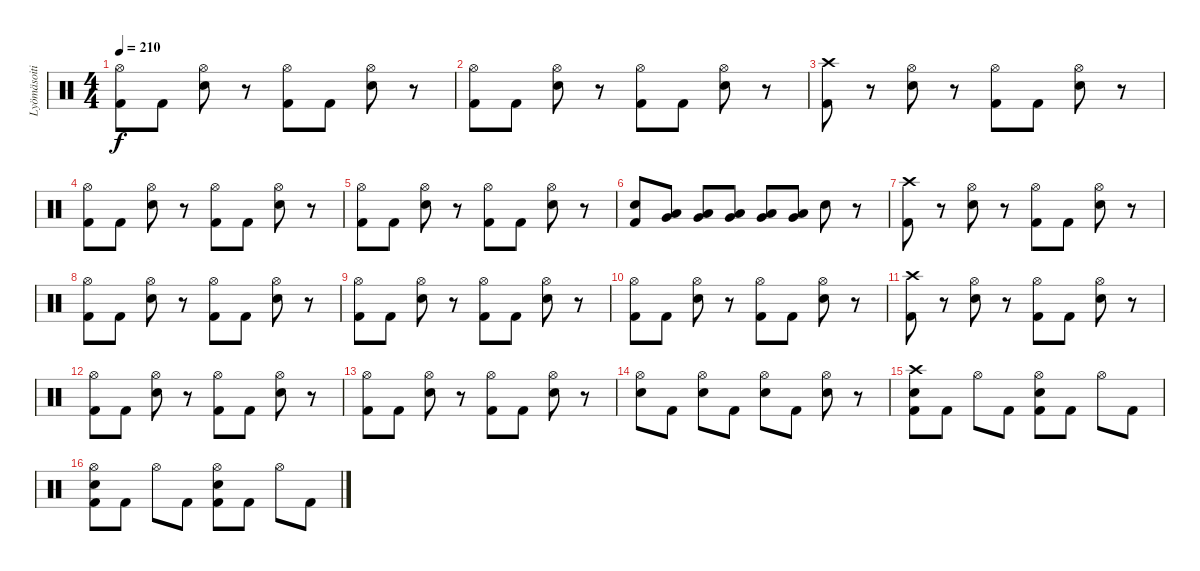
\track ("Lyömäsoitin" "Lyömäsoiti") {instrument percussion}
\staff {score}
\articulation defaults
\ts (4 4)
\tempo 210
\clef neutral
\ks c
("Hi-Hat (open)" "Kick (hit) 2").8{dy f} "Kick (hit) 2".8 ("Hi-Hat (open)" "Electric Snare (hit)").8 r.8 ("Hi-Hat (open)" "Kick (hit) 2").8 "Kick (hit) 2".8 ("Hi-Hat (open)" "Electric Snare (hit)").8 r.8 |
("Hi-Hat (open)" "Kick (hit) 2").8 "Kick (hit) 2".8 ("Hi-Hat (open)" "Electric Snare (hit)").8 r.8 ("Hi-Hat (open)" "Kick (hit) 2").8 "Kick (hit) 2".8 ("Hi-Hat (open)" "Electric Snare (hit)").8 r.8 |
("Crash high (hit)" "Kick (hit) 2").8 r.8 ("Hi-Hat (open)" "Electric Snare (hit)").8 r.8 ("Hi-Hat (open)" "Kick (hit) 2").8 "Kick (hit) 2".8 ("Hi-Hat (open)" "Electric Snare (hit)").8 r.8 |
("Hi-Hat (open)" "Kick (hit) 2").8 "Kick (hit) 2".8 ("Hi-Hat (open)" "Electric Snare (hit)").8 r.8 ("Hi-Hat (open)" "Kick (hit) 2").8 "Kick (hit) 2".8 ("Hi-Hat (open)" "Electric Snare (hit)").8 r.8 |
("Hi-Hat (open)" "Kick (hit) 2").8 "Kick (hit) 2".8 ("Hi-Hat (open)" "Electric Snare (hit)").8 r.8 ("Hi-Hat (open)" "Kick (hit) 2").8 "Kick (hit) 2".8 ("Hi-Hat (open)" "Electric Snare (hit)").8 r.8 |
("Electric Snare (hit)" "Kick (hit) 2").8 ("Low Tom (hit)" "Very Low Tom (hit)").8 ("Low Tom (hit)" "Very Low Tom (hit)").8 ("Low Tom (hit)" "Very Low Tom (hit)").8 ("Very Low Tom (hit)" "Low Floor Tom (hit)").8 ("Very Low Tom (hit)" "Low Floor Tom (hit)").8 "Electric Snare (hit)".8 r.8 |
("Crash high (hit)" "Kick (hit) 2").8 r.8 ("Hi-Hat (open)" "Electric Snare (hit)").8 r.8 ("Hi-Hat (open)" "Kick (hit) 2").8 "Kick (hit) 2".8 ("Hi-Hat (open)" "Electric Snare (hit)").8 r.8 |
("Hi-Hat (open)" "Kick (hit) 2").8 "Kick (hit) 2".8 ("Hi-Hat (open)" "Electric Snare (hit)").8 r.8 ("Hi-Hat (open)" "Kick (hit) 2").8 "Kick (hit) 2".8 ("Hi-Hat (open)" "Electric Snare (hit)").8 r.8 |
("Hi-Hat (open)" "Kick (hit) 2").8 "Kick (hit) 2".8 ("Hi-Hat (open)" "Electric Snare (hit)").8 r.8 ("Hi-Hat (open)" "Kick (hit) 2").8 "Kick (hit) 2".8 ("Hi-Hat (open)" "Electric Snare (hit)").8 r.8 |
("Hi-Hat (open)" "Kick (hit) 2").8 "Kick (hit) 2".8 ("Hi-Hat (open)" "Electric Snare (hit)").8 r.8 ("Hi-Hat (open)" "Kick (hit) 2").8 "Kick (hit) 2".8 ("Hi-Hat (open)" "Electric Snare (hit)").8 r.8 |
("Crash high (hit)" "Kick (hit) 2").8 r.8 ("Hi-Hat (open)" "Electric Snare (hit)").8 r.8 ("Hi-Hat (open)" "Kick (hit) 2").8 "Kick (hit) 2".8 ("Hi-Hat (open)" "Electric Snare (hit)").8 r.8 |
("Hi-Hat (open)" "Kick (hit) 2").8 "Kick (hit) 2".8 ("Hi-Hat (open)" "Electric Snare (hit)").8 r.8 ("Hi-Hat (open)" "Kick (hit) 2").8 "Kick (hit) 2".8 ("Hi-Hat (open)" "Electric Snare (hit)").8 r.8 |
("Hi-Hat (open)" "Kick (hit) 2").8 "Kick (hit) 2".8 ("Hi-Hat (open)" "Electric Snare (hit)").8 r.8 ("Hi-Hat (open)" "Kick (hit) 2").8 "Kick (hit) 2".8 ("Hi-Hat (open)" "Electric Snare (hit)").8 r.8 |
("Hi-Hat (open)" "Electric Snare (hit)").8 "Kick (hit) 2".8 ("Hi-Hat (open)" "Electric Snare (hit)").8 "Kick (hit) 2".8 ("Hi-Hat (open)" "Electric Snare (hit)").8 "Kick (hit) 2".8 ("Hi-Hat (open)" "Electric Snare (hit)").8 r.8 |
("Crash high (hit)" "Electric Snare (hit)" "Kick (hit) 2").8 "Kick (hit) 2".8 "Hi-Hat (open)".8 "Kick (hit) 2".8 ("Hi-Hat (open)" "Electric Snare (hit)" "Kick (hit) 2").8 "Kick (hit) 2".8 "Hi-Hat (open)".8 "Kick (hit) 2".8 |
("Hi-Hat (open)" "Electric Snare (hit)" "Kick (hit) 2").8 "Kick (hit) 2".8 "Hi-Hat (open)".8 "Kick (hit) 2".8 ("Hi-Hat (open)" "Electric Snare (hit)" "Kick (hit) 2").8 "Kick (hit) 2".8 "Hi-Hat (open)".8 "Kick (hit) 2".8
